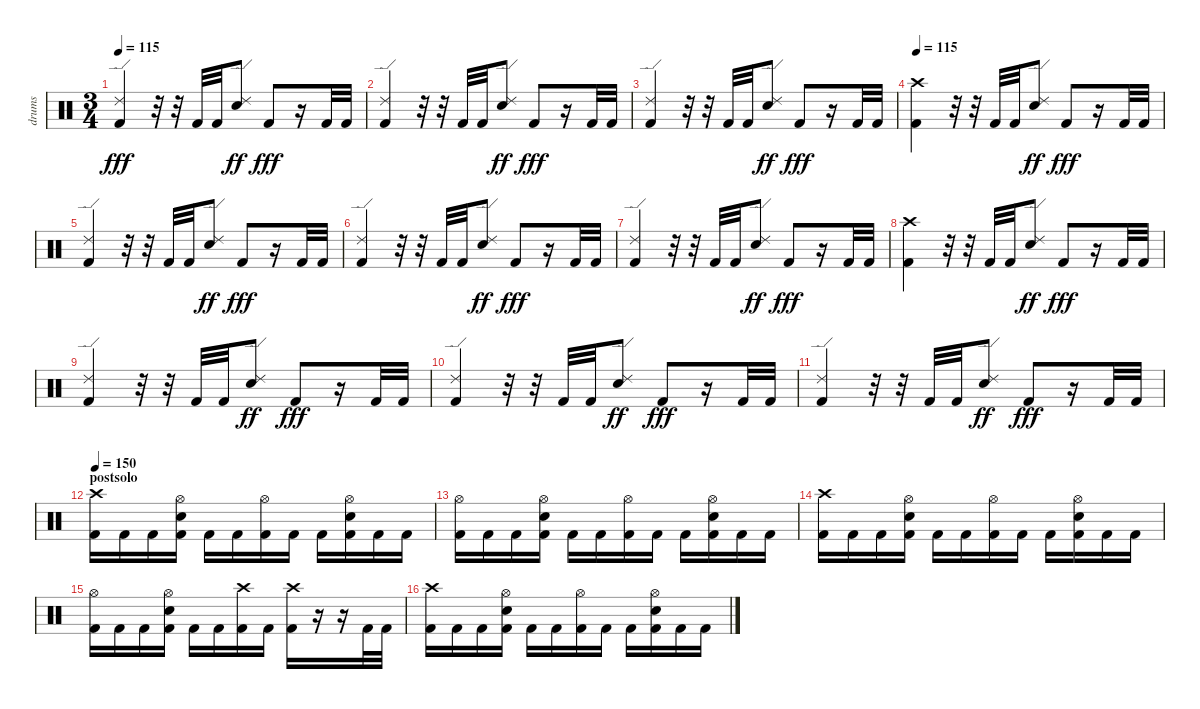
\track ("drums" "drums") {instrument percussion}
\staff {score}
\articulation defaults
\ts (3 4)
\tempo 115
\clef neutral
\ks c
("Ride (edge) 2" "Kick (hit) 2").4{dy fff} r.32 r.32 "Kick (hit) 2".32 "Kick (hit) 2".32 ("Ride (edge) 2" "Snare (hit) 2").8{dy ff} "Kick (hit) 2".8{dy fff} r.16 "Kick (hit) 2".32 "Kick (hit) 2".32 |
("Ride (edge) 2" "Kick (hit) 2").4 r.32 r.32 "Kick (hit) 2".32 "Kick (hit) 2".32 ("Ride (edge) 2" "Snare (hit) 2").8{dy ff} "Kick (hit) 2".8{dy fff} r.16 "Kick (hit) 2".32 "Kick (hit) 2".32 |
("Ride (edge) 2" "Kick (hit) 2").4 r.32 r.32 "Kick (hit) 2".32 "Kick (hit) 2".32 ("Ride (edge) 2" "Snare (hit) 2").8{dy ff} "Kick (hit) 2".8{dy fff} r.16 "Kick (hit) 2".32 "Kick (hit) 2".32 |
\tempo 115
("Crash high (hit)" "Kick (hit) 2").4 r.32 r.32 "Kick (hit) 2".32 "Kick (hit) 2".32 ("Ride (edge) 2" "Snare (hit) 2").8{dy ff} "Kick (hit) 2".8{dy fff} r.16 "Kick (hit) 2".32 "Kick (hit) 2".32 |
("Ride (edge) 2" "Kick (hit) 2").4 r.32 r.32 "Kick (hit) 2".32 "Kick (hit) 2".32 ("Ride (edge) 2" "Snare (hit) 2").8{dy ff} "Kick (hit) 2".8{dy fff} r.16 "Kick (hit) 2".32 "Kick (hit) 2".32 |
("Ride (edge) 2" "Kick (hit) 2").4 r.32 r.32 "Kick (hit) 2".32 "Kick (hit) 2".32 ("Ride (edge) 2" "Snare (hit) 2").8{dy ff} "Kick (hit) 2".8{dy fff} r.16 "Kick (hit) 2".32 "Kick (hit) 2".32 |
("Ride (edge) 2" "Kick (hit) 2").4 r.32 r.32 "Kick (hit) 2".32 "Kick (hit) 2".32 ("Ride (edge) 2" "Snare (hit) 2").8{dy ff} "Kick (hit) 2".8{dy fff} r.16 "Kick (hit) 2".32 "Kick (hit) 2".32 |
("Crash high (hit)" "Kick (hit) 2").4 r.32 r.32 "Kick (hit) 2".32 "Kick (hit) 2".32 ("Ride (edge) 2" "Snare (hit) 2").8{dy ff} "Kick (hit) 2".8{dy fff} r.16 "Kick (hit) 2".32 "Kick (hit) 2".32 |
("Ride (edge) 2" "Kick (hit) 2").4 r.32 r.32 "Kick (hit) 2".32 "Kick (hit) 2".32 ("Ride (edge) 2" "Snare (hit) 2").8{dy ff} "Kick (hit) 2".8{dy fff} r.16 "Kick (hit) 2".32 "Kick (hit) 2".32 |
("Ride (edge) 2" "Kick (hit) 2").4 r.32 r.32 "Kick (hit) 2".32 "Kick (hit) 2".32 ("Ride (edge) 2" "Snare (hit) 2").8{dy ff} "Kick (hit) 2".8{dy fff} r.16 "Kick (hit) 2".32 "Kick (hit) 2".32 |
("Ride (edge) 2" "Kick (hit) 2").4 r.32 r.32 "Kick (hit) 2".32 "Kick (hit) 2".32 ("Ride (edge) 2" "Snare (hit) 2").8{dy ff} "Kick (hit) 2".8{dy fff} r.16 "Kick (hit) 2".32 "Kick (hit) 2".32 |
\section ("" "postsolo")
\tempo 150
("Crash high (hit)" "Kick (hit) 2").16 "Kick (hit) 2".16 "Kick (hit) 2".16 ("Hi-Hat (open)" "Snare (hit) 2" "Kick (hit) 2").16 "Kick (hit) 2".16 "Kick (hit) 2".16 ("Hi-Hat (open)" "Kick (hit) 2").16 "Kick (hit) 2".16 "Kick (hit) 2".16 ("Hi-Hat (open)" "Snare (hit) 2" "Kick (hit) 2").16 "Kick (hit) 2".16 "Kick (hit) 2".16 |
("Hi-Hat (open)" "Kick (hit) 2").16 "Kick (hit) 2".16 "Kick (hit) 2".16 ("Hi-Hat (open)" "Snare (hit) 2" "Kick (hit) 2").16 "Kick (hit) 2".16 "Kick (hit) 2".16 ("Hi-Hat (open)" "Kick (hit) 2").16 "Kick (hit) 2".16 "Kick (hit) 2".16 ("Hi-Hat (open)" "Snare (hit) 2" "Kick (hit) 2").16 "Kick (hit) 2".16 "Kick (hit) 2".16 |
("Crash high (hit)" "Kick (hit) 2").16 "Kick (hit) 2".16 "Kick (hit) 2".16 ("Hi-Hat (open)" "Snare (hit) 2" "Kick (hit) 2").16 "Kick (hit) 2".16 "Kick (hit) 2".16 ("Hi-Hat (open)" "Kick (hit) 2").16 "Kick (hit) 2".16 "Kick (hit) 2".16 ("Hi-Hat (open)" "Snare (hit) 2" "Kick (hit) 2").16 "Kick (hit) 2".16 "Kick (hit) 2".16 |
("Hi-Hat (open)" "Kick (hit) 2").16 "Kick (hit) 2".16 "Kick (hit) 2".16 ("Hi-Hat (open)" "Snare (hit) 2" "Kick (hit) 2").16 "Kick (hit) 2".16 "Kick (hit) 2".16 ("Crash high (hit)" "Kick (hit) 2").16 "Kick (hit) 2".16 ("Crash high (hit)" "Kick (hit) 2").16 r.16 r.16 "Kick (hit) 2".32 "Kick (hit) 2".32 |
("Crash high (hit)" "Kick (hit) 2").16 "Kick (hit) 2".16 "Kick (hit) 2".16 ("Hi-Hat (open)" "Snare (hit) 2" "Kick (hit) 2").16 "Kick (hit) 2".16 "Kick (hit) 2".16 ("Hi-Hat (open)" "Kick (hit) 2").16 "Kick (hit) 2".16 "Kick (hit) 2".16 ("Hi-Hat (open)" "Snare (hit) 2" "Kick (hit) 2").16 "Kick (hit) 2".16 "Kick (hit) 2".16
